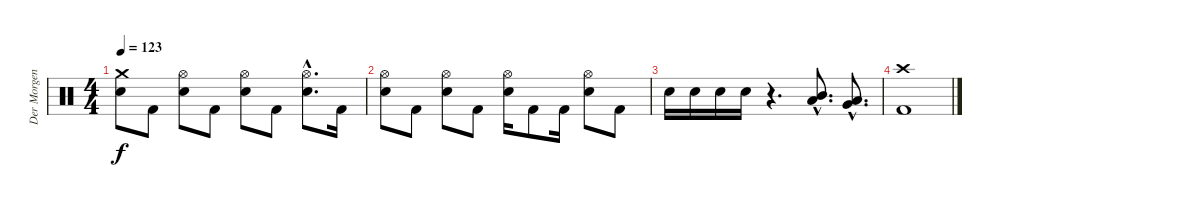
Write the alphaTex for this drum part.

\track ("Der Morgenstern" "Der Morgen") {instrument percussion}
\staff {score}
\articulation defaults
\ts (4 4)
\tempo 123
\clef neutral
\ks c
("Crash medium (hit)" "Electric Snare (hit)").8{dy f} "Kick (hit) 2".8 ("Hi-Hat (open)" "Electric Snare (hit)").8 "Kick (hit) 2".8 ("Hi-Hat (open)" "Electric Snare (hit)").8 "Kick (hit) 2".8 ("Hi-Hat (open)"{hac} "Electric Snare (hit)"{hac}).8{d} "Kick (hit) 2".16 |
("Hi-Hat (open)" "Electric Snare (hit)").8 "Kick (hit) 2".8 ("Hi-Hat (open)" "Electric Snare (hit)").8 "Kick (hit) 2".8 ("Hi-Hat (open)" "Electric Snare (hit)").16 "Kick (hit) 2".8 "Kick (hit) 2".16 ("Hi-Hat (open)" "Electric Snare (hit)").8 "Kick (hit) 2".8 |
"Electric Snare (hit)".16 "Electric Snare (hit)".16 "Electric Snare (hit)".16 "Electric Snare (hit)".16 r.4{d} ("Mid Tom (hit)"{hac} "Low Tom (hit)"{hac}).8{d} ("Low Tom (hit)"{hac} "Very Low Tom (hit)"{hac}).8{d} |
("Crash high (hit)" "Kick (hit) 2").1
